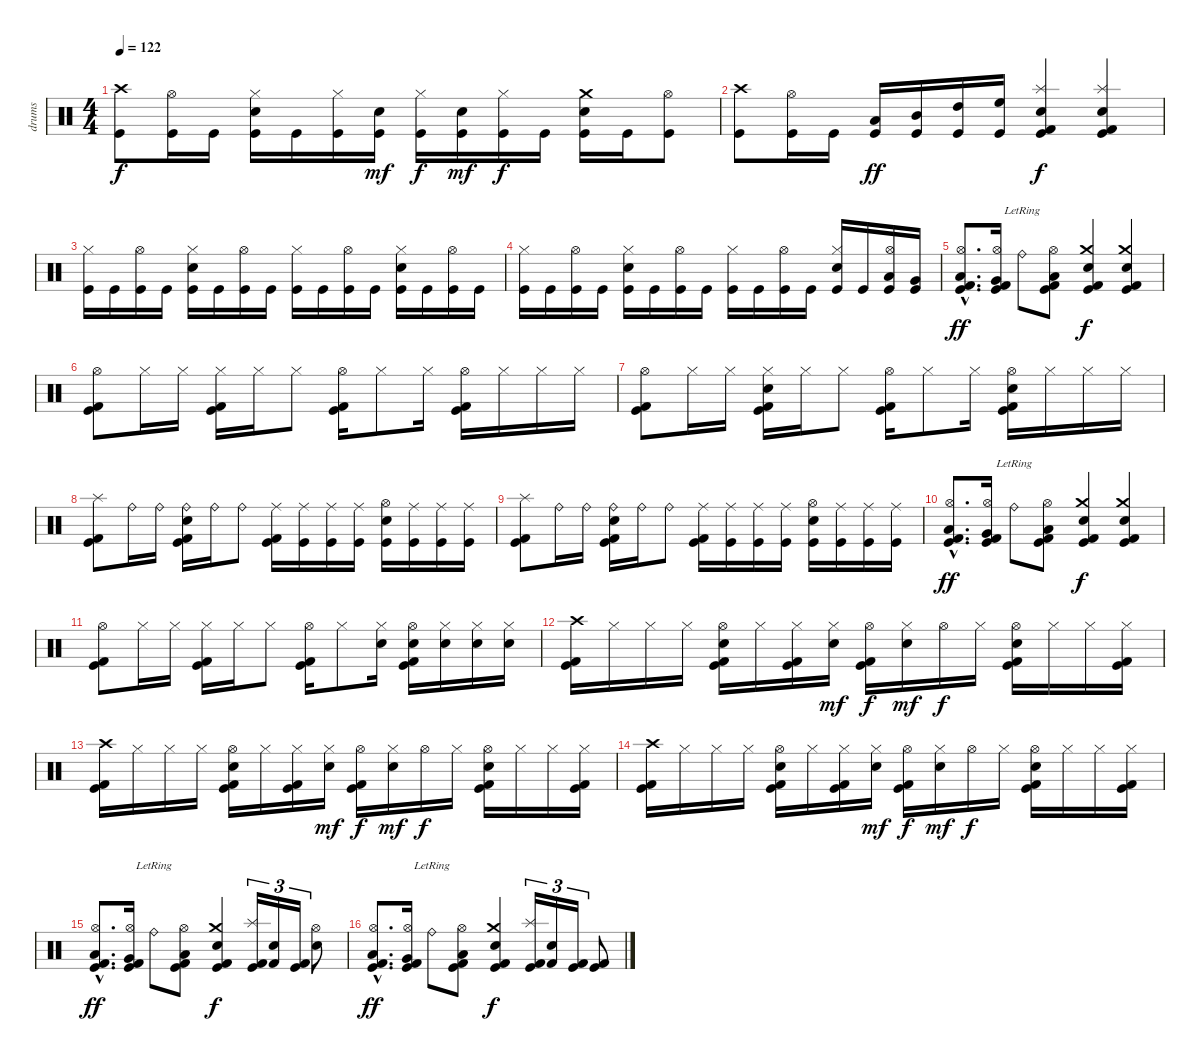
\track ("drums" "drums") {instrument percussion}
\staff {score}
\articulation defaults
\ts (4 4)
\tempo 122
\clef neutral
\ks c
("Crash high (hit)" "Kick (hit)").8{dy f} ("Hi-Hat (open)" "Kick (hit)").16 "Kick (hit)".16 ("Hi-Hat (closed)" "Electric Snare (hit)" "Kick (hit)").16 "Kick (hit)".16 ("Hi-Hat (closed)" "Kick (hit)").16 ("Electric Snare (hit)" "Kick (hit)").16{dy mf} ("Hi-Hat (closed)" "Kick (hit)").16{dy f} ("Electric Snare (hit)" "Kick (hit)").16{dy mf} ("Hi-Hat (closed)" "Kick (hit)").16{dy f} "Kick (hit)".16 ("Crash medium (hit)" "Electric Snare (hit)" "Kick (hit)").16 "Kick (hit)".16 ("Hi-Hat (open)" "Kick (hit)").8 |
("Crash high (hit)" "Kick (hit)").8 ("Hi-Hat (open)" "Kick (hit)").16 "Kick (hit)".16 ("Low Tom (hit)" "Kick (hit)").16{dy ff} ("Mid Tom (hit)" "Kick (hit)").16 ("High Tom (hit)" "Kick (hit)").16 ("High Floor Tom (hit)" "Kick (hit)").16 ("Splash (hit)" "Electric Snare (hit)" "Kick (hit) 2" "Kick (hit)").4{dy f} ("Splash (hit)" "Electric Snare (hit)" "Kick (hit) 2" "Kick (hit)").4 |
("Hi-Hat (closed)" "Kick (hit)").16 "Kick (hit)".16 ("Hi-Hat (open)" "Kick (hit)").16 "Kick (hit)".16 ("Hi-Hat (closed)" "Electric Snare (hit)" "Kick (hit)").16 "Kick (hit)".16 ("Hi-Hat (open)" "Kick (hit)").16 "Kick (hit)".16 ("Hi-Hat (closed)" "Kick (hit)").16 "Kick (hit)".16 ("Hi-Hat (open)" "Kick (hit)").16 "Kick (hit)".16 ("Hi-Hat (closed)" "Electric Snare (hit)" "Kick (hit)").16 "Kick (hit)".16 ("Hi-Hat (open)" "Kick (hit)").16 "Kick (hit)".16 |
("Hi-Hat (closed)" "Kick (hit)").16 "Kick (hit)".16 ("Hi-Hat (open)" "Kick (hit)").16 "Kick (hit)".16 ("Hi-Hat (closed)" "Electric Snare (hit)" "Kick (hit)").16 "Kick (hit)".16 ("Hi-Hat (open)" "Kick (hit)").16 "Kick (hit)".16 ("Hi-Hat (closed)" "Kick (hit)").16 "Kick (hit)".16 ("Hi-Hat (open)" "Kick (hit)").16 "Kick (hit)".16 ("Hi-Hat (closed)" "Electric Snare (hit)" "Kick (hit)").16 "Kick (hit)".16 ("Hi-Hat (open)" "Low Floor Tom (hit)" "Kick (hit)").16 ("Very Low Tom (hit)" "Kick (hit)").16 |
("Hi-Hat (open)"{hac} "Low Floor Tom (hit)"{hac} "Kick (hit) 2"{hac} "Kick (hit)"{hac}).8{d dy ff} ("Hi-Hat (open)" "Very Low Tom (hit)" "Kick (hit) 2" "Kick (hit)").16 "Ride (bell)"{lr}.8 ("Hi-Hat (open)" "Low Tom (hit)" "Kick (hit) 2" "Kick (hit)").8 ("Crash medium (hit)" "Electric Snare (hit)" "Kick (hit) 2" "Kick (hit)").4{dy f} ("Crash medium (hit)" "Electric Snare (hit)" "Kick (hit)" "Kick (hit) 2").4 |
("Hi-Hat (open)" "Kick (hit) 2" "Kick (hit)").8 "Hi-Hat (closed)".16 "Hi-Hat (closed)".16 ("Hi-Hat (closed)" "Kick (hit) 2" "Kick (hit)").16 "Hi-Hat (closed)".16 "Hi-Hat (closed)".8 ("Hi-Hat (open)" "Kick (hit) 2" "Kick (hit)").16 "Hi-Hat (closed)".8 "Hi-Hat (closed)".16 ("Hi-Hat (open)" "Kick (hit) 2" "Kick (hit)").16 "Hi-Hat (closed)".16 "Hi-Hat (closed)".16 "Hi-Hat (closed)".16 |
("Hi-Hat (open)" "Kick (hit) 2" "Kick (hit)").8 "Hi-Hat (closed)".16 "Hi-Hat (closed)".16 ("Hi-Hat (closed)" "Electric Snare (hit)" "Kick (hit) 2" "Kick (hit)").16 "Hi-Hat (closed)".16 "Hi-Hat (closed)".8 ("Hi-Hat (open)" "Kick (hit) 2" "Kick (hit)").16 "Hi-Hat (closed)".8 "Hi-Hat (closed)".16 ("Hi-Hat (open)" "Electric Snare (hit)" "Kick (hit) 2" "Kick (hit)").16 "Hi-Hat (closed)".16 "Hi-Hat (closed)".16 "Hi-Hat (closed)".16 |
("Splash (hit)" "Kick (hit) 2" "Kick (hit)").8 "Ride (bell)".16 "Ride (bell)".16 ("Ride (bell)" "Electric Snare (hit)" "Kick (hit) 2" "Kick (hit)").16 "Ride (bell)".16 "Ride (bell)".8 ("Ride (middle)" "Kick (hit) 2" "Kick (hit)").16 ("Ride (middle)" "Kick (hit)").16 ("Ride (middle)" "Kick (hit)").16 ("Ride (middle)" "Kick (hit)").16 ("Hi-Hat (open)" "Electric Snare (hit)" "Kick (hit)").16 ("Ride (middle)" "Kick (hit)").16 ("Ride (middle)" "Kick (hit)").16 ("Ride (middle)" "Kick (hit)").16 |
("Splash (hit)" "Kick (hit) 2" "Kick (hit)").8 "Ride (bell)".16 "Ride (bell)".16 ("Ride (bell)" "Electric Snare (hit)" "Kick (hit) 2" "Kick (hit)").16 "Ride (bell)".16 "Ride (bell)".8 ("Ride (middle)" "Kick (hit) 2" "Kick (hit)").16 ("Ride (middle)" "Kick (hit)").16 ("Ride (middle)" "Kick (hit)").16 ("Ride (middle)" "Kick (hit)").16 ("Hi-Hat (open)" "Electric Snare (hit)" "Kick (hit)").16 ("Ride (middle)" "Kick (hit)").16 ("Ride (middle)" "Kick (hit)").16 ("Ride (middle)" "Kick (hit)").16 |
("Hi-Hat (open)"{hac} "Low Floor Tom (hit)"{hac} "Kick (hit) 2"{hac} "Kick (hit)"{hac}).8{d dy ff} ("Hi-Hat (open)" "Very Low Tom (hit)" "Kick (hit) 2" "Kick (hit)").16 "Ride (bell)"{lr}.8 ("Hi-Hat (open)" "Low Tom (hit)" "Kick (hit) 2" "Kick (hit)").8 ("Crash medium (hit)" "Electric Snare (hit)" "Kick (hit) 2" "Kick (hit)").4{dy f} ("Crash medium (hit)" "Electric Snare (hit)" "Kick (hit)" "Kick (hit) 2").4 |
("Hi-Hat (open)" "Kick (hit) 2" "Kick (hit)").8 "Hi-Hat (closed)".16 "Hi-Hat (closed)".16 ("Hi-Hat (closed)" "Kick (hit) 2" "Kick (hit)").16 "Hi-Hat (closed)".16 "Hi-Hat (closed)".8 ("Hi-Hat (open)" "Kick (hit) 2" "Kick (hit)").16 "Hi-Hat (closed)".8 ("Hi-Hat (closed)" "Electric Snare (hit)").16 ("Hi-Hat (open)" "Electric Snare (hit)" "Kick (hit) 2" "Kick (hit)").16 ("Hi-Hat (closed)" "Electric Snare (hit)").16 ("Hi-Hat (closed)" "Electric Snare (hit)").16 ("Hi-Hat (closed)" "Electric Snare (hit)").16 |
("Crash high (hit)" "Kick (hit) 2" "Kick (hit)").16 "Hi-Hat (closed)".16 "Hi-Hat (closed)".16 "Hi-Hat (closed)".16 ("Hi-Hat (open)" "Electric Snare (hit)" "Kick (hit) 2" "Kick (hit)").16 "Hi-Hat (closed)".16 ("Hi-Hat (closed)" "Kick (hit) 2" "Kick (hit)").16 ("Hi-Hat (closed)" "Electric Snare (hit)").16{dy mf} ("Hi-Hat (open)" "Kick (hit)" "Kick (hit) 2").16{dy f} ("Hi-Hat (closed)" "Electric Snare (hit)").16{dy mf} "Hi-Hat (open)".16{dy f} "Hi-Hat (closed)".16 ("Hi-Hat (open)" "Electric Snare (hit)" "Kick (hit)" "Kick (hit) 2").16 "Hi-Hat (closed)".16 "Hi-Hat (closed)".16 ("Hi-Hat (closed)" "Kick (hit) 2" "Kick (hit)").16 |
("Crash high (hit)" "Kick (hit) 2" "Kick (hit)").16 "Hi-Hat (closed)".16 "Hi-Hat (closed)".16 "Hi-Hat (closed)".16 ("Hi-Hat (open)" "Electric Snare (hit)" "Kick (hit) 2" "Kick (hit)").16 "Hi-Hat (closed)".16 ("Hi-Hat (closed)" "Kick (hit) 2" "Kick (hit)").16 ("Hi-Hat (closed)" "Electric Snare (hit)").16{dy mf} ("Hi-Hat (open)" "Kick (hit)" "Kick (hit) 2").16{dy f} ("Hi-Hat (closed)" "Electric Snare (hit)").16{dy mf} "Hi-Hat (open)".16{dy f} "Hi-Hat (closed)".16 ("Hi-Hat (open)" "Electric Snare (hit)" "Kick (hit)" "Kick (hit) 2").16 "Hi-Hat (closed)".16 "Hi-Hat (closed)".16 ("Hi-Hat (closed)" "Kick (hit) 2" "Kick (hit)").16 |
("Crash high (hit)" "Kick (hit) 2" "Kick (hit)").16 "Hi-Hat (closed)".16 "Hi-Hat (closed)".16 "Hi-Hat (closed)".16 ("Hi-Hat (open)" "Electric Snare (hit)" "Kick (hit) 2" "Kick (hit)").16 "Hi-Hat (closed)".16 ("Hi-Hat (closed)" "Kick (hit) 2" "Kick (hit)").16 ("Hi-Hat (closed)" "Electric Snare (hit)").16{dy mf} ("Hi-Hat (open)" "Kick (hit)" "Kick (hit) 2").16{dy f} ("Hi-Hat (closed)" "Electric Snare (hit)").16{dy mf} "Hi-Hat (open)".16{dy f} "Hi-Hat (closed)".16 ("Hi-Hat (open)" "Electric Snare (hit)" "Kick (hit)" "Kick (hit) 2").16 "Hi-Hat (closed)".16 "Hi-Hat (closed)".16 ("Hi-Hat (closed)" "Kick (hit) 2" "Kick (hit)").16 |
("Hi-Hat (open)"{hac} "Low Floor Tom (hit)"{hac} "Kick (hit) 2"{hac} "Kick (hit)"{hac}).8{d dy ff} ("Hi-Hat (open)" "Very Low Tom (hit)" "Kick (hit) 2" "Kick (hit)").16 "Ride (bell)"{lr}.8 ("Hi-Hat (open)" "Low Tom (hit)" "Kick (hit) 2" "Kick (hit)").8 ("Crash medium (hit)" "Electric Snare (hit)" "Kick (hit) 2" "Kick (hit)").4{dy f} ("Splash (hit)" "Kick (hit)" "Kick (hit) 2").16{tu (3 2)} ("Metronome (bell)" "Kick (hit) 2").16{tu (3 2)} ("Kick (hit)" "Kick (hit) 2").16{tu (3 2)} ("Hi-Hat (open)" "Electric Snare (hit)").8 |
("Hi-Hat (open)"{hac} "Low Floor Tom (hit)"{hac} "Kick (hit) 2"{hac} "Kick (hit)"{hac}).8{d dy ff} ("Hi-Hat (open)" "Very Low Tom (hit)" "Kick (hit) 2" "Kick (hit)").16 "Ride (bell)"{lr}.8 ("Hi-Hat (open)" "Low Tom (hit)" "Kick (hit) 2" "Kick (hit)").8 ("Crash medium (hit)" "Electric Snare (hit)" "Kick (hit) 2" "Kick (hit)").4{dy f} ("Splash (hit)" "Kick (hit)" "Kick (hit) 2").16{tu (3 2)} ("Metronome (bell)" "Kick (hit) 2").16{tu (3 2)} ("Kick (hit)" "Kick (hit) 2").16{tu (3 2)} ("Kick (hit) 2" "Kick (hit)").8
